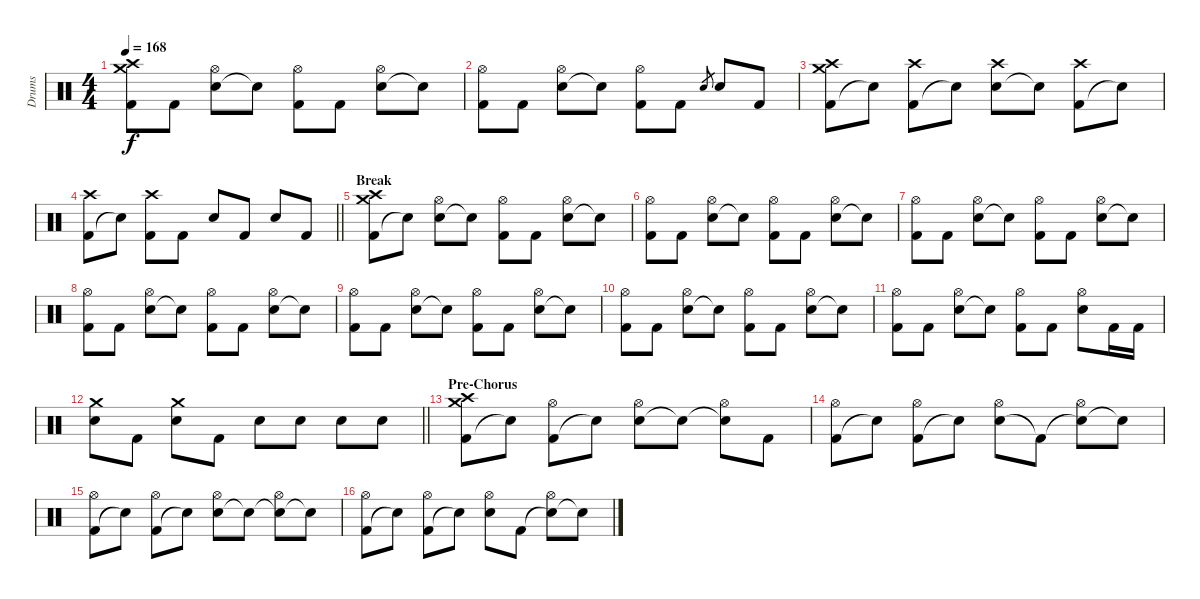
\track ("Drums" "Drums") {instrument percussion}
\staff {score}
\articulation defaults
\ts (4 4)
\tempo 168
\clef neutral
\ks c
("Kick (hit) 2" "Crash medium (hit)" "Crash high (hit)").8{dy f} "Kick (hit) 2".8 ("Electric Snare (hit)" "Hi-Hat (open)").8 "Snare (hit)"{t}.8 ("Kick (hit) 2" "Hi-Hat (open)").8 "Kick (hit) 2".8 ("Electric Snare (hit)" "Hi-Hat (open)").8 "Snare (hit)"{t}.8 |
("Kick (hit) 2" "Hi-Hat (open)").8 "Kick (hit) 2".8 ("Electric Snare (hit)" "Hi-Hat (open)").8 "Snare (hit)"{t}.8 ("Kick (hit) 2" "Hi-Hat (open)").8 "Kick (hit) 2".8 "Electric Snare (hit)".8{gr} "Electric Snare (hit)".8 "Kick (hit) 2".8 |
("Kick (hit) 2" "Crash medium (hit)" "Crash high (hit)").8 "Snare (hit)"{t}.8 ("Kick (hit) 2" "Crash high (hit)").8 "Snare (hit)"{t}.8 ("Electric Snare (hit)" "Crash high (hit)").8 "Snare (hit)"{t}.8 ("Kick (hit) 2" "Crash high (hit)").8 "Snare (hit)"{t}.8 |
\barLineRight lightlight
("Kick (hit) 2" "Crash high (hit)").8 "Snare (hit)"{t}.8 ("Kick (hit) 2" "Crash high (hit)").8 "Kick (hit) 2".8 "Electric Snare (hit)".8 "Kick (hit) 2".8 "Electric Snare (hit)".8 "Kick (hit) 2".8 |
\section ("" "Break")
("Kick (hit) 2" "Crash medium (hit)" "Crash high (hit)").8 "Snare (hit)"{t}.8 ("Electric Snare (hit)" "Hi-Hat (open)").8 "Snare (hit)"{t}.8 ("Kick (hit) 2" "Hi-Hat (open)").8 "Kick (hit) 2".8 ("Electric Snare (hit)" "Hi-Hat (open)").8 "Snare (hit)"{t}.8 |
("Kick (hit) 2" "Hi-Hat (open)").8 "Kick (hit) 2".8 ("Electric Snare (hit)" "Hi-Hat (open)").8 "Snare (hit)"{t}.8 ("Kick (hit) 2" "Hi-Hat (open)").8 "Kick (hit) 2".8 ("Electric Snare (hit)" "Hi-Hat (open)").8 "Snare (hit)"{t}.8 |
("Kick (hit) 2" "Hi-Hat (open)").8 "Kick (hit) 2".8 ("Electric Snare (hit)" "Hi-Hat (open)").8 "Snare (hit)"{t}.8 ("Kick (hit) 2" "Hi-Hat (open)").8 "Kick (hit) 2".8 ("Electric Snare (hit)" "Hi-Hat (open)").8 "Snare (hit)"{t}.8 |
("Kick (hit) 2" "Hi-Hat (open)").8 "Kick (hit) 2".8 ("Electric Snare (hit)" "Hi-Hat (open)").8 "Snare (hit)"{t}.8 ("Kick (hit) 2" "Hi-Hat (open)").8 "Kick (hit) 2".8 ("Electric Snare (hit)" "Hi-Hat (open)").8 "Snare (hit)"{t}.8 |
("Kick (hit) 2" "Hi-Hat (open)").8 "Kick (hit) 2".8 ("Electric Snare (hit)" "Hi-Hat (open)").8 "Snare (hit)"{t}.8 ("Kick (hit) 2" "Hi-Hat (open)").8 "Kick (hit) 2".8 ("Electric Snare (hit)" "Hi-Hat (open)").8 "Snare (hit)"{t}.8 |
("Kick (hit) 2" "Hi-Hat (open)").8 "Kick (hit) 2".8 ("Electric Snare (hit)" "Hi-Hat (open)").8 "Snare (hit)"{t}.8 ("Kick (hit) 2" "Hi-Hat (open)").8 "Kick (hit) 2".8 ("Electric Snare (hit)" "Hi-Hat (open)").8 "Snare (hit)"{t}.8 |
("Kick (hit) 2" "Hi-Hat (open)").8 "Kick (hit) 2".8 ("Electric Snare (hit)" "Hi-Hat (open)").8 "Snare (hit)"{t}.8 ("Kick (hit) 2" "Hi-Hat (open)").8 "Kick (hit) 2".8 ("Electric Snare (hit)" "Hi-Hat (open)").8 "Kick (hit) 2".16 "Kick (hit) 2".16 |
\barLineRight lightlight
("Electric Snare (hit)" "Crash medium (hit)").8 "Kick (hit) 2".8 ("Electric Snare (hit)" "Crash medium (hit)").8 "Kick (hit) 2".8 "Electric Snare (hit)".8 "Electric Snare (hit)".8 "Electric Snare (hit)".8 "Electric Snare (hit)".8 |
\section ("" "Pre-Chorus")
("Kick (hit) 2" "Crash medium (hit)" "Crash high (hit)").8 "Snare (hit)"{t}.8 ("Kick (hit) 2" "Hi-Hat (open)").8 "Snare (hit)"{t}.8 ("Electric Snare (hit)" "Hi-Hat (open)").8 "Snare (hit)"{t}.8 ("Snare (hit)"{t} "Hi-Hat (open)").8 "Kick (hit) 2".8 |
("Kick (hit) 2" "Hi-Hat (open)").8 "Snare (hit)"{t}.8 ("Kick (hit) 2" "Hi-Hat (open)").8 "Snare (hit)"{t}.8 ("Electric Snare (hit)" "Hi-Hat (open)").8 "Kick (hit) 2"{t}.8 ("Snare (hit)"{t} "Hi-Hat (open)").8 "Snare (hit)"{t}.8 |
("Kick (hit) 2" "Hi-Hat (open)").8 "Snare (hit)"{t}.8 ("Kick (hit) 2" "Hi-Hat (open)").8 "Snare (hit)"{t}.8 ("Electric Snare (hit)" "Hi-Hat (open)").8 "Snare (hit)"{t}.8 ("Snare (hit)"{t} "Hi-Hat (open)").8 "Snare (hit)"{t}.8 |
("Kick (hit) 2" "Hi-Hat (open)").8 "Snare (hit)"{t}.8 ("Kick (hit) 2" "Hi-Hat (open)").8 "Snare (hit)"{t}.8 ("Electric Snare (hit)" "Hi-Hat (open)").8 "Kick (hit) 2".8 ("Snare (hit)"{t} "Hi-Hat (open)").8 "Snare (hit)"{t}.8
